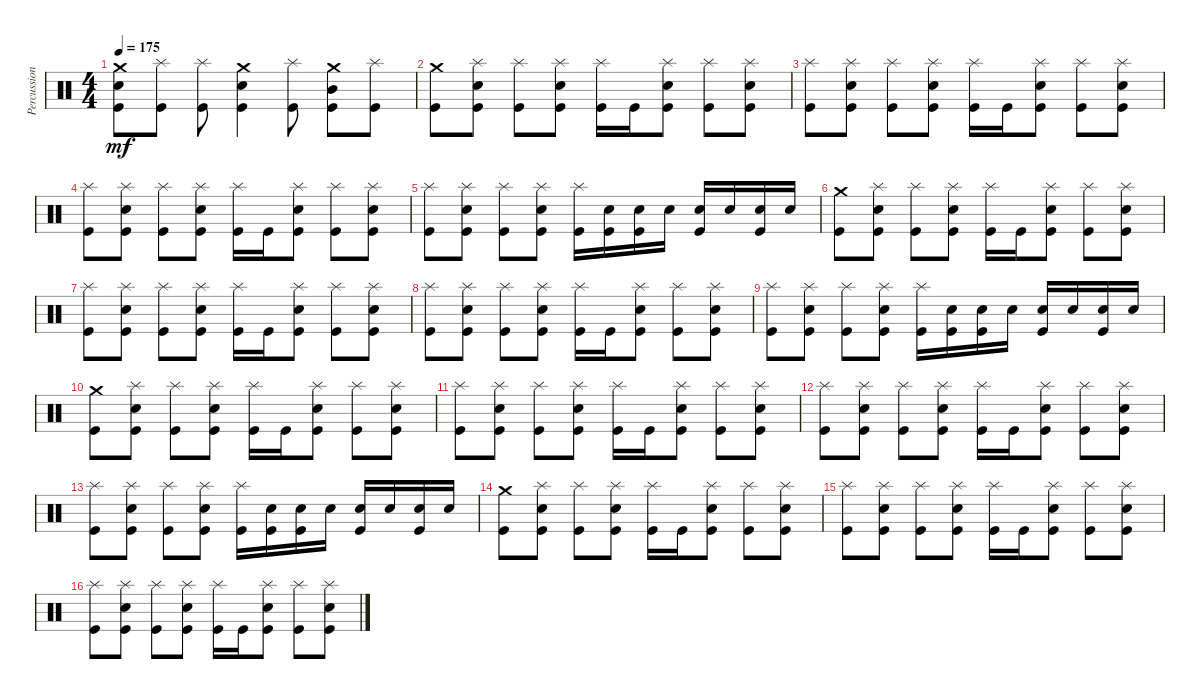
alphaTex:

\track ("Percussioni" "Percussion") {instrument percussion}
\staff {score}
\articulation defaults
\ts (4 4)
\tempo 175
\clef neutral
\ks c
("Kick (hit)" "Electric Snare (hit)" "Crash medium (hit)").8{dy mf} ("Kick (hit)" "Splash (hit)").8 ("Kick (hit)" "Splash (hit)").8 ("Kick (hit)" "Electric Snare (hit)" "Crash medium (hit)").4 ("Kick (hit)" "Splash (hit)").8 ("Kick (hit)" "Mid Tom (hit)" "Crash medium (hit)").8 ("Kick (hit)" "Splash (hit)").8 |
("Crash medium (hit)" "Kick (hit)").8 ("Electric Snare (hit)" "Splash (hit)" "Kick (hit)").8 ("Splash (hit)" "Kick (hit)").8 ("Electric Snare (hit)" "Splash (hit)" "Kick (hit)").8 ("Splash (hit)" "Kick (hit)").16 "Kick (hit)".16 ("Electric Snare (hit)" "Splash (hit)" "Kick (hit)").8 ("Splash (hit)" "Kick (hit)").8 ("Electric Snare (hit)" "Splash (hit)" "Kick (hit)").8 |
("Splash (hit)" "Kick (hit)").8 ("Electric Snare (hit)" "Splash (hit)" "Kick (hit)").8 ("Splash (hit)" "Kick (hit)").8 ("Electric Snare (hit)" "Splash (hit)" "Kick (hit)").8 ("Splash (hit)" "Kick (hit)").16 "Kick (hit)".16 ("Electric Snare (hit)" "Splash (hit)" "Kick (hit)").8 ("Splash (hit)" "Kick (hit)").8 ("Electric Snare (hit)" "Splash (hit)" "Kick (hit)").8 |
("Splash (hit)" "Kick (hit)").8 ("Electric Snare (hit)" "Splash (hit)" "Kick (hit)").8 ("Splash (hit)" "Kick (hit)").8 ("Electric Snare (hit)" "Splash (hit)" "Kick (hit)").8 ("Splash (hit)" "Kick (hit)").16 "Kick (hit)".16 ("Electric Snare (hit)" "Splash (hit)" "Kick (hit)").8 ("Splash (hit)" "Kick (hit)").8 ("Electric Snare (hit)" "Splash (hit)" "Kick (hit)").8 |
("Splash (hit)" "Kick (hit)").8 ("Electric Snare (hit)" "Splash (hit)" "Kick (hit)").8 ("Splash (hit)" "Kick (hit)").8 ("Electric Snare (hit)" "Splash (hit)" "Kick (hit)").8 ("Splash (hit)" "Kick (hit)").16 ("Electric Snare (hit)" "Kick (hit)").16 ("Electric Snare (hit)" "Kick (hit)").16 "Electric Snare (hit)".16 ("Electric Snare (hit)" "Kick (hit)").16 "Electric Snare (hit)".16 ("Electric Snare (hit)" "Kick (hit)").16 "Electric Snare (hit)".16 |
("Crash medium (hit)" "Kick (hit)").8 ("Electric Snare (hit)" "Splash (hit)" "Kick (hit)").8 ("Splash (hit)" "Kick (hit)").8 ("Electric Snare (hit)" "Splash (hit)" "Kick (hit)").8 ("Splash (hit)" "Kick (hit)").16 "Kick (hit)".16 ("Electric Snare (hit)" "Splash (hit)" "Kick (hit)").8 ("Splash (hit)" "Kick (hit)").8 ("Electric Snare (hit)" "Splash (hit)" "Kick (hit)").8 |
("Splash (hit)" "Kick (hit)").8 ("Electric Snare (hit)" "Splash (hit)" "Kick (hit)").8 ("Splash (hit)" "Kick (hit)").8 ("Electric Snare (hit)" "Splash (hit)" "Kick (hit)").8 ("Splash (hit)" "Kick (hit)").16 "Kick (hit)".16 ("Electric Snare (hit)" "Splash (hit)" "Kick (hit)").8 ("Splash (hit)" "Kick (hit)").8 ("Electric Snare (hit)" "Splash (hit)" "Kick (hit)").8 |
("Splash (hit)" "Kick (hit)").8 ("Electric Snare (hit)" "Splash (hit)" "Kick (hit)").8 ("Splash (hit)" "Kick (hit)").8 ("Electric Snare (hit)" "Splash (hit)" "Kick (hit)").8 ("Splash (hit)" "Kick (hit)").16 "Kick (hit)".16 ("Electric Snare (hit)" "Splash (hit)" "Kick (hit)").8 ("Splash (hit)" "Kick (hit)").8 ("Electric Snare (hit)" "Splash (hit)" "Kick (hit)").8 |
("Splash (hit)" "Kick (hit)").8 ("Electric Snare (hit)" "Splash (hit)" "Kick (hit)").8 ("Splash (hit)" "Kick (hit)").8 ("Electric Snare (hit)" "Splash (hit)" "Kick (hit)").8 ("Splash (hit)" "Kick (hit)").16 ("Electric Snare (hit)" "Kick (hit)").16 ("Electric Snare (hit)" "Kick (hit)").16 "Electric Snare (hit)".16 ("Electric Snare (hit)" "Kick (hit)").16 "Electric Snare (hit)".16 ("Electric Snare (hit)" "Kick (hit)").16 "Electric Snare (hit)".16 |
("Crash medium (hit)" "Kick (hit)").8 ("Electric Snare (hit)" "Splash (hit)" "Kick (hit)").8 ("Splash (hit)" "Kick (hit)").8 ("Electric Snare (hit)" "Splash (hit)" "Kick (hit)").8 ("Splash (hit)" "Kick (hit)").16 "Kick (hit)".16 ("Electric Snare (hit)" "Splash (hit)" "Kick (hit)").8 ("Splash (hit)" "Kick (hit)").8 ("Electric Snare (hit)" "Splash (hit)" "Kick (hit)").8 |
("Splash (hit)" "Kick (hit)").8 ("Electric Snare (hit)" "Splash (hit)" "Kick (hit)").8 ("Splash (hit)" "Kick (hit)").8 ("Electric Snare (hit)" "Splash (hit)" "Kick (hit)").8 ("Splash (hit)" "Kick (hit)").16 "Kick (hit)".16 ("Electric Snare (hit)" "Splash (hit)" "Kick (hit)").8 ("Splash (hit)" "Kick (hit)").8 ("Electric Snare (hit)" "Splash (hit)" "Kick (hit)").8 |
("Splash (hit)" "Kick (hit)").8 ("Electric Snare (hit)" "Splash (hit)" "Kick (hit)").8 ("Splash (hit)" "Kick (hit)").8 ("Electric Snare (hit)" "Splash (hit)" "Kick (hit)").8 ("Splash (hit)" "Kick (hit)").16 "Kick (hit)".16 ("Electric Snare (hit)" "Splash (hit)" "Kick (hit)").8 ("Splash (hit)" "Kick (hit)").8 ("Electric Snare (hit)" "Splash (hit)" "Kick (hit)").8 |
("Splash (hit)" "Kick (hit)").8 ("Electric Snare (hit)" "Splash (hit)" "Kick (hit)").8 ("Splash (hit)" "Kick (hit)").8 ("Electric Snare (hit)" "Splash (hit)" "Kick (hit)").8 ("Splash (hit)" "Kick (hit)").16 ("Electric Snare (hit)" "Kick (hit)").16 ("Electric Snare (hit)" "Kick (hit)").16 "Electric Snare (hit)".16 ("Electric Snare (hit)" "Kick (hit)").16 "Electric Snare (hit)".16 ("Electric Snare (hit)" "Kick (hit)").16 "Electric Snare (hit)".16 |
("Crash medium (hit)" "Kick (hit)").8 ("Electric Snare (hit)" "Splash (hit)" "Kick (hit)").8 ("Splash (hit)" "Kick (hit)").8 ("Electric Snare (hit)" "Splash (hit)" "Kick (hit)").8 ("Splash (hit)" "Kick (hit)").16 "Kick (hit)".16 ("Electric Snare (hit)" "Splash (hit)" "Kick (hit)").8 ("Splash (hit)" "Kick (hit)").8 ("Electric Snare (hit)" "Splash (hit)" "Kick (hit)").8 |
("Splash (hit)" "Kick (hit)").8 ("Electric Snare (hit)" "Splash (hit)" "Kick (hit)").8 ("Splash (hit)" "Kick (hit)").8 ("Electric Snare (hit)" "Splash (hit)" "Kick (hit)").8 ("Splash (hit)" "Kick (hit)").16 "Kick (hit)".16 ("Electric Snare (hit)" "Splash (hit)" "Kick (hit)").8 ("Splash (hit)" "Kick (hit)").8 ("Electric Snare (hit)" "Splash (hit)" "Kick (hit)").8 |
("Splash (hit)" "Kick (hit)").8 ("Electric Snare (hit)" "Splash (hit)" "Kick (hit)").8 ("Splash (hit)" "Kick (hit)").8 ("Electric Snare (hit)" "Splash (hit)" "Kick (hit)").8 ("Splash (hit)" "Kick (hit)").16 "Kick (hit)".16 ("Electric Snare (hit)" "Splash (hit)" "Kick (hit)").8 ("Splash (hit)" "Kick (hit)").8 ("Electric Snare (hit)" "Splash (hit)" "Kick (hit)").8
